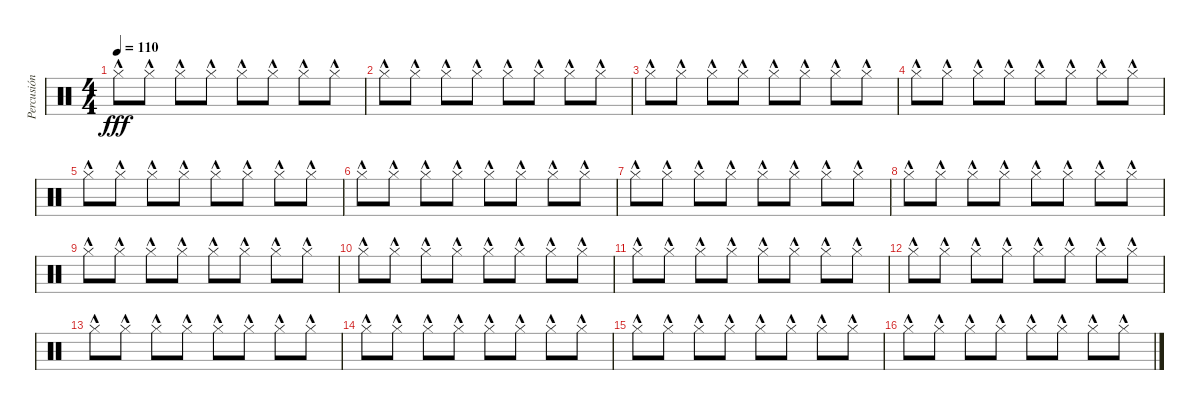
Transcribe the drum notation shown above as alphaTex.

\track ("Percusión" "Percusión") {instrument percussion}
\staff {score}
\articulation defaults
\ts (4 4)
\tempo 110
\clef neutral
\ks c "Hi-Hat (closed)"{hac}.8{dy fff} "Hi-Hat (closed)"{hac}.8 "Hi-Hat (closed)"{hac}.8 "Hi-Hat (closed)"{hac}.8 "Hi-Hat (closed)"{hac}.8 "Hi-Hat (closed)"{hac}.8 "Hi-Hat (closed)"{hac}.8 "Hi-Hat (closed)"{hac}.8
|
"Hi-Hat (closed)"{hac}.8 "Hi-Hat (closed)"{hac}.8 "Hi-Hat (closed)"{hac}.8 "Hi-Hat (closed)"{hac}.8 "Hi-Hat (closed)"{hac}.8 "Hi-Hat (closed)"{hac}.8 "Hi-Hat (closed)"{hac}.8 "Hi-Hat (closed)"{hac}.8 |
"Hi-Hat (closed)"{hac}.8 "Hi-Hat (closed)"{hac}.8 "Hi-Hat (closed)"{hac}.8 "Hi-Hat (closed)"{hac}.8 "Hi-Hat (closed)"{hac}.8 "Hi-Hat (closed)"{hac}.8 "Hi-Hat (closed)"{hac}.8 "Hi-Hat (closed)"{hac}.8 |
"Hi-Hat (closed)"{hac}.8 "Hi-Hat (closed)"{hac}.8 "Hi-Hat (closed)"{hac}.8 "Hi-Hat (closed)"{hac}.8 "Hi-Hat (closed)"{hac}.8 "Hi-Hat (closed)"{hac}.8 "Hi-Hat (closed)"{hac}.8 "Hi-Hat (closed)"{hac}.8 |
"Hi-Hat (closed)"{hac}.8 "Hi-Hat (closed)"{hac}.8 "Hi-Hat (closed)"{hac}.8 "Hi-Hat (closed)"{hac}.8 "Hi-Hat (closed)"{hac}.8 "Hi-Hat (closed)"{hac}.8 "Hi-Hat (closed)"{hac}.8 "Hi-Hat (closed)"{hac}.8 |
"Hi-Hat (closed)"{hac}.8 "Hi-Hat (closed)"{hac}.8 "Hi-Hat (closed)"{hac}.8 "Hi-Hat (closed)"{hac}.8 "Hi-Hat (closed)"{hac}.8 "Hi-Hat (closed)"{hac}.8 "Hi-Hat (closed)"{hac}.8 "Hi-Hat (closed)"{hac}.8 |
"Hi-Hat (closed)"{hac}.8 "Hi-Hat (closed)"{hac}.8 "Hi-Hat (closed)"{hac}.8 "Hi-Hat (closed)"{hac}.8 "Hi-Hat (closed)"{hac}.8 "Hi-Hat (closed)"{hac}.8 "Hi-Hat (closed)"{hac}.8 "Hi-Hat (closed)"{hac}.8 |
"Hi-Hat (closed)"{hac}.8 "Hi-Hat (closed)"{hac}.8 "Hi-Hat (closed)"{hac}.8 "Hi-Hat (closed)"{hac}.8 "Hi-Hat (closed)"{hac}.8 "Hi-Hat (closed)"{hac}.8 "Hi-Hat (closed)"{hac}.8 "Hi-Hat (closed)"{hac}.8 |
"Hi-Hat (closed)"{hac}.8 "Hi-Hat (closed)"{hac}.8 "Hi-Hat (closed)"{hac}.8 "Hi-Hat (closed)"{hac}.8 "Hi-Hat (closed)"{hac}.8 "Hi-Hat (closed)"{hac}.8 "Hi-Hat (closed)"{hac}.8 "Hi-Hat (closed)"{hac}.8 |
"Hi-Hat (closed)"{hac}.8 "Hi-Hat (closed)"{hac}.8 "Hi-Hat (closed)"{hac}.8 "Hi-Hat (closed)"{hac}.8 "Hi-Hat (closed)"{hac}.8 "Hi-Hat (closed)"{hac}.8 "Hi-Hat (closed)"{hac}.8 "Hi-Hat (closed)"{hac}.8 |
"Hi-Hat (closed)"{hac}.8 "Hi-Hat (closed)"{hac}.8 "Hi-Hat (closed)"{hac}.8 "Hi-Hat (closed)"{hac}.8 "Hi-Hat (closed)"{hac}.8 "Hi-Hat (closed)"{hac}.8 "Hi-Hat (closed)"{hac}.8 "Hi-Hat (closed)"{hac}.8 |
"Hi-Hat (closed)"{hac}.8 "Hi-Hat (closed)"{hac}.8 "Hi-Hat (closed)"{hac}.8 "Hi-Hat (closed)"{hac}.8 "Hi-Hat (closed)"{hac}.8 "Hi-Hat (closed)"{hac}.8 "Hi-Hat (closed)"{hac}.8 "Hi-Hat (closed)"{hac}.8 |
"Hi-Hat (closed)"{hac}.8 "Hi-Hat (closed)"{hac}.8 "Hi-Hat (closed)"{hac}.8 "Hi-Hat (closed)"{hac}.8 "Hi-Hat (closed)"{hac}.8 "Hi-Hat (closed)"{hac}.8 "Hi-Hat (closed)"{hac}.8 "Hi-Hat (closed)"{hac}.8 |
"Hi-Hat (closed)"{hac}.8 "Hi-Hat (closed)"{hac}.8 "Hi-Hat (closed)"{hac}.8 "Hi-Hat (closed)"{hac}.8 "Hi-Hat (closed)"{hac}.8 "Hi-Hat (closed)"{hac}.8 "Hi-Hat (closed)"{hac}.8 "Hi-Hat (closed)"{hac}.8 |
"Hi-Hat (closed)"{hac}.8 "Hi-Hat (closed)"{hac}.8 "Hi-Hat (closed)"{hac}.8 "Hi-Hat (closed)"{hac}.8 "Hi-Hat (closed)"{hac}.8 "Hi-Hat (closed)"{hac}.8 "Hi-Hat (closed)"{hac}.8 "Hi-Hat (closed)"{hac}.8 |
"Hi-Hat (closed)"{hac}.8 "Hi-Hat (closed)"{hac}.8 "Hi-Hat (closed)"{hac}.8 "Hi-Hat (closed)"{hac}.8 "Hi-Hat (closed)"{hac}.8 "Hi-Hat (closed)"{hac}.8 "Hi-Hat (closed)"{hac}.8 "Hi-Hat (closed)"{hac}.8
